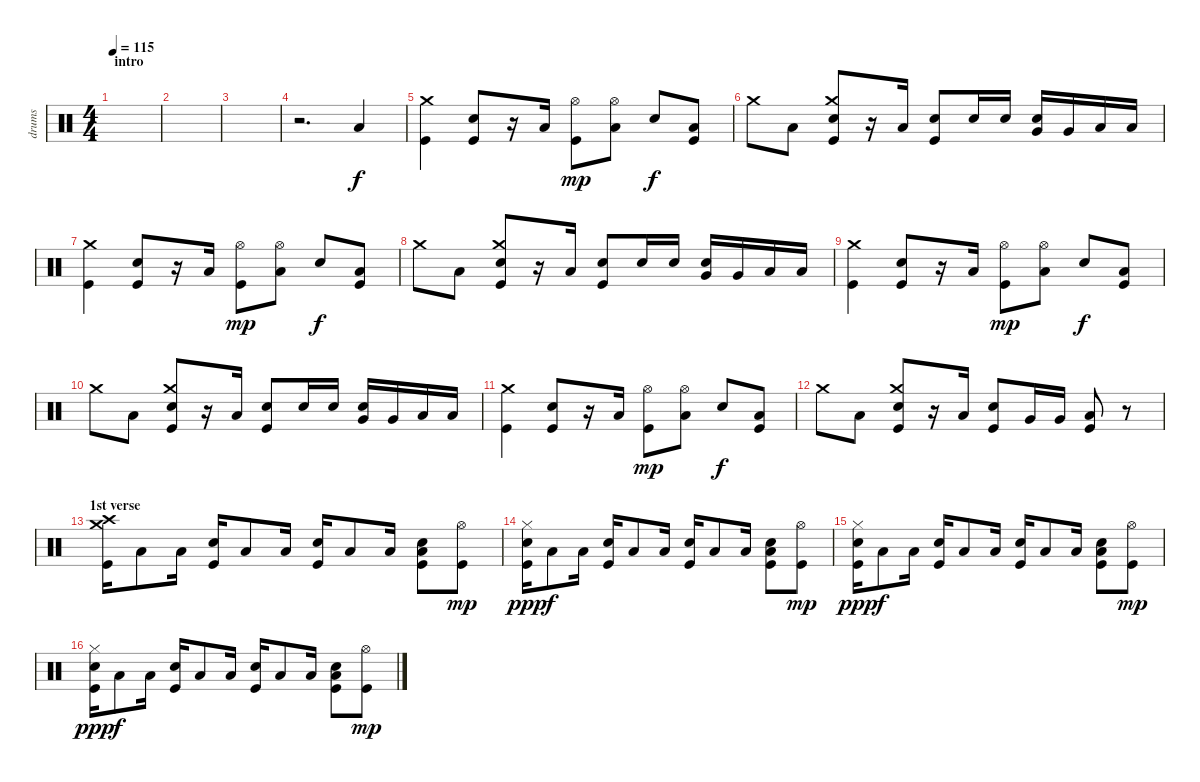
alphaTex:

\track ("drums" "drums") {instrument percussion}
\staff {score}
\articulation defaults
\ts (4 4)
\section ("" "intro")
\tempo 115
\clef neutral
\ks c
|
|
|
r.2{d} "Low Floor Tom (hit)".4 |
\section ("" "")
("Kick (hit)" "Crash medium (hit)").4 ("Kick (hit)" "Electric Snare (hit)").8 r.16 "Low Floor Tom (hit)".16 ("Kick (hit)" "Hi-Hat (open)").8{dy mp} ("Low Floor Tom (hit)" "Hi-Hat (open)").8 "Electric Snare (hit)".8{dy f} ("Kick (hit)" "Low Floor Tom (hit)").8 |
"Crash medium (hit)".8 "Low Floor Tom (hit)".8 ("Kick (hit)" "Electric Snare (hit)" "Crash medium (hit)").8 r.16 "Low Floor Tom (hit)".16 ("Kick (hit)" "Electric Snare (hit)").8 "Electric Snare (hit)".16 "Electric Snare (hit)".16 ("Electric Snare (hit)" "Very Low Tom (hit)").16 "Very Low Tom (hit)".16 "Low Floor Tom (hit)".16 "Low Floor Tom (hit)".16 |
("Kick (hit)" "Crash medium (hit)").4 ("Kick (hit)" "Electric Snare (hit)").8 r.16 "Low Floor Tom (hit)".16 ("Kick (hit)" "Hi-Hat (open)").8{dy mp} ("Low Floor Tom (hit)" "Hi-Hat (open)").8 "Electric Snare (hit)".8{dy f} ("Kick (hit)" "Low Floor Tom (hit)").8 |
"Crash medium (hit)".8 "Low Floor Tom (hit)".8 ("Kick (hit)" "Electric Snare (hit)" "Crash medium (hit)").8 r.16 "Low Floor Tom (hit)".16 ("Kick (hit)" "Electric Snare (hit)").8 "Electric Snare (hit)".16 "Electric Snare (hit)".16 ("Electric Snare (hit)" "Very Low Tom (hit)").16 "Very Low Tom (hit)".16 "Low Floor Tom (hit)".16 "Low Floor Tom (hit)".16 |
("Kick (hit)" "Crash medium (hit)").4 ("Kick (hit)" "Electric Snare (hit)").8 r.16 "Low Floor Tom (hit)".16 ("Kick (hit)" "Hi-Hat (open)").8{dy mp} ("Low Floor Tom (hit)" "Hi-Hat (open)").8 "Electric Snare (hit)".8{dy f} ("Kick (hit)" "Low Floor Tom (hit)").8 |
"Crash medium (hit)".8 "Low Floor Tom (hit)".8 ("Kick (hit)" "Electric Snare (hit)" "Crash medium (hit)").8 r.16 "Low Floor Tom (hit)".16 ("Kick (hit)" "Electric Snare (hit)").8 "Electric Snare (hit)".16 "Electric Snare (hit)".16 ("Electric Snare (hit)" "Very Low Tom (hit)").16 "Very Low Tom (hit)".16 "Low Floor Tom (hit)".16 "Low Floor Tom (hit)".16 |
("Kick (hit)" "Crash medium (hit)").4 ("Kick (hit)" "Electric Snare (hit)").8 r.16 "Low Floor Tom (hit)".16 ("Kick (hit)" "Hi-Hat (open)").8{dy mp} ("Low Floor Tom (hit)" "Hi-Hat (open)").8 "Electric Snare (hit)".8{dy f} ("Kick (hit)" "Low Floor Tom (hit)").8 |
"Crash medium (hit)".8 "Low Floor Tom (hit)".8 ("Kick (hit)" "Electric Snare (hit)" "Crash medium (hit)").8 r.16 "Low Floor Tom (hit)".16 ("Kick (hit)" "Electric Snare (hit)").8 "Very Low Tom (hit)".16 "Very Low Tom (hit)".16 ("Kick (hit)" "Low Floor Tom (hit)").8 r.8 |
\section ("" "1st verse")
("Kick (hit)" "Crash medium (hit)" "Crash high (hit)").16 "Low Floor Tom (hit)".8 "Low Floor Tom (hit)".16 ("Kick (hit)" "Electric Snare (hit)").16 "Low Floor Tom (hit)".8 "Low Floor Tom (hit)".16 ("Kick (hit)" "Electric Snare (hit)").16 "Low Floor Tom (hit)".8 "Low Floor Tom (hit)".16 ("Kick (hit)" "Low Floor Tom (hit)" "Electric Snare (hit)").8 ("Kick (hit)" "Hi-Hat (open)").8{dy mp} |
("Kick (hit)" "Electric Snare (hit)" "Hi-Hat (closed)").16{dy ppp} "Low Floor Tom (hit)".8{dy f} "Low Floor Tom (hit)".16 ("Kick (hit)" "Electric Snare (hit)").16 "Low Floor Tom (hit)".8 "Low Floor Tom (hit)".16 ("Kick (hit)" "Electric Snare (hit)").16 "Low Floor Tom (hit)".8 "Low Floor Tom (hit)".16 ("Kick (hit)" "Low Floor Tom (hit)" "Electric Snare (hit)").8 ("Kick (hit)" "Hi-Hat (open)").8{dy mp} |
("Kick (hit)" "Electric Snare (hit)" "Hi-Hat (closed)").16{dy ppp} "Low Floor Tom (hit)".8{dy f} "Low Floor Tom (hit)".16 ("Kick (hit)" "Electric Snare (hit)").16 "Low Floor Tom (hit)".8 "Low Floor Tom (hit)".16 ("Kick (hit)" "Electric Snare (hit)").16 "Low Floor Tom (hit)".8 "Low Floor Tom (hit)".16 ("Kick (hit)" "Low Floor Tom (hit)" "Electric Snare (hit)").8 ("Kick (hit)" "Hi-Hat (open)").8{dy mp} |
("Kick (hit)" "Electric Snare (hit)" "Hi-Hat (closed)").16{dy ppp} "Low Floor Tom (hit)".8{dy f} "Low Floor Tom (hit)".16 ("Kick (hit)" "Electric Snare (hit)").16 "Low Floor Tom (hit)".8 "Low Floor Tom (hit)".16 ("Kick (hit)" "Electric Snare (hit)").16 "Low Floor Tom (hit)".8 "Low Floor Tom (hit)".16 ("Kick (hit)" "Low Floor Tom (hit)" "Electric Snare (hit)").8 ("Kick (hit)" "Hi-Hat (open)").8{dy mp}
